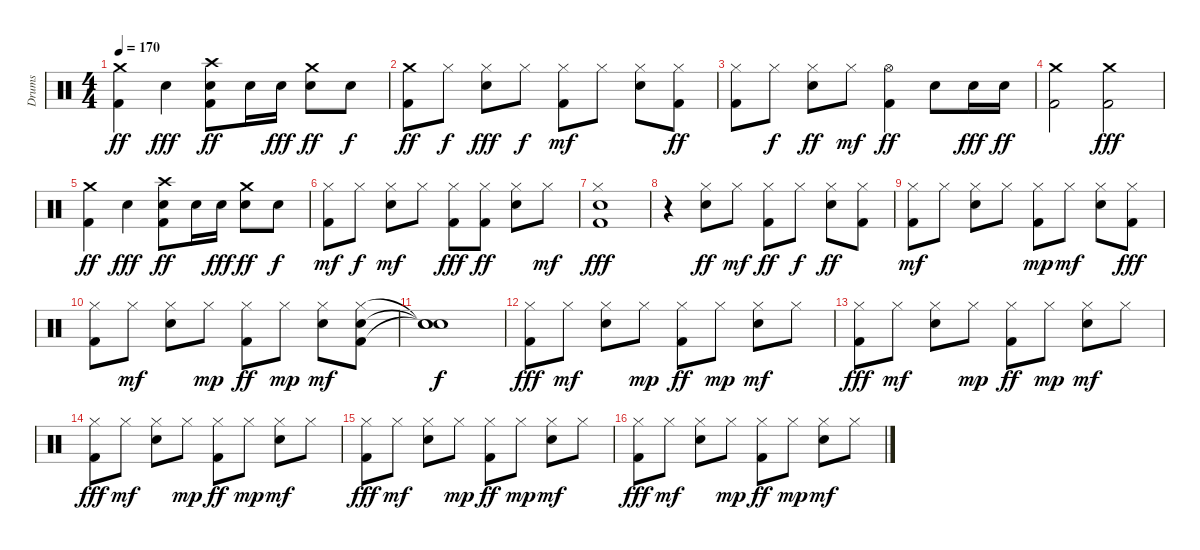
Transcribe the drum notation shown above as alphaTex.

\track ("Drums" "Drums") {instrument percussion}
\staff {score}
\articulation defaults
\ts (4 4)
\tempo 170
\clef neutral
\ks c
("Crash medium (hit)" "Kick (hit) 2").4{dy ff} "Snare (hit) 2".4{dy fff} ("Snare (hit) 2" "Kick (hit) 2" "Crash high (hit)").8{dy ff} "Snare (hit) 2".16 "Snare (hit) 2".16{dy fff} ("Snare (hit) 2" "Crash medium (hit)").8{dy ff} "Snare (hit) 2".8{dy f} |
("Crash medium (hit)" "Kick (hit) 2").8{dy ff} "Hi-Hat (closed)".8{dy f} ("Hi-Hat (closed)" "Snare (hit) 2").8{dy fff} "Hi-Hat (closed)".8{dy f} ("Kick (hit) 2" "Hi-Hat (closed)").8{dy mf} "Hi-Hat (closed)".8 ("Snare (hit) 2" "Hi-Hat (closed)").8 ("Hi-Hat (closed)" "Kick (hit) 2").8{dy ff} |
("Hi-Hat (closed)" "Kick (hit) 2").8 "Hi-Hat (closed)".8{dy f} ("Hi-Hat (closed)" "Snare (hit) 2").8{dy ff} "Hi-Hat (closed)".8{dy mf} ("Kick (hit) 2" "Hi-Hat (open)").4{dy ff} "Snare (hit) 2".8 "Snare (hit) 2".16{dy fff} "Snare (hit) 2".16{dy ff} |
("Kick (hit) 2" "Crash medium (hit)").2 ("Kick (hit) 2" "Crash medium (hit)").2{dy fff} |
("Crash medium (hit)" "Kick (hit) 2").4{dy ff} "Snare (hit) 2".4{dy fff} ("Snare (hit) 2" "Kick (hit) 2" "Crash high (hit)").8{dy ff} "Snare (hit) 2".16 "Snare (hit) 2".16{dy fff} ("Snare (hit) 2" "Crash medium (hit)").8{dy ff} "Snare (hit) 2".8{dy f} |
("Kick (hit) 2" "Hi-Hat (closed)").8{dy mf} "Hi-Hat (closed)".8{dy f} ("Snare (hit) 2" "Hi-Hat (closed)").8{dy mf} "Hi-Hat (closed)".8 ("Hi-Hat (closed)" "Kick (hit) 2").8{dy fff} ("Hi-Hat (closed)" "Kick (hit) 2").8{dy ff} ("Hi-Hat (closed)" "Snare (hit) 2").8 "Hi-Hat (closed)".8{dy mf} |
("Kick (hit) 2" "Hi-Hat (closed)" "Snare (hit) 2").1{dy fff} |
r.4 ("Hi-Hat (closed)" "Snare (hit) 2").8{dy ff} "Hi-Hat (closed)".8{dy mf} ("Hi-Hat (closed)" "Kick (hit) 2").8{dy ff} "Hi-Hat (closed)".8{dy f} ("Hi-Hat (closed)" "Snare (hit) 2").8{dy ff} ("Hi-Hat (closed)" "Kick (hit) 2").8 |
("Hi-Hat (closed)" "Kick (hit) 2").8{dy mf} "Hi-Hat (closed)".8 ("Hi-Hat (closed)" "Snare (hit) 2").8 "Hi-Hat (closed)".8 ("Hi-Hat (closed)" "Kick (hit) 2").8{dy mp} "Hi-Hat (closed)".8{dy mf} ("Hi-Hat (closed)" "Snare (hit) 2").8 ("Hi-Hat (closed)" "Kick (hit) 2").8{dy fff} |
("Hi-Hat (closed)" "Kick (hit) 2").8 "Hi-Hat (closed)".8{dy mf} ("Hi-Hat (closed)" "Snare (hit) 2").8 "Hi-Hat (closed)".8{dy mp} ("Hi-Hat (closed)" "Kick (hit) 2").8{dy ff} "Hi-Hat (closed)".8{dy mp} ("Hi-Hat (closed)" "Snare (hit) 2").8{dy mf} ("Hi-Hat (closed)" "Kick (hit) 2" "Snare (hit) 2").8 |
("Snare (hit)"{t} "Snare (hit)"{t} "Snare (hit)"{t}).1{dy f} |
("Hi-Hat (closed)" "Kick (hit) 2").8{dy fff} "Hi-Hat (closed)".8{dy mf} ("Hi-Hat (closed)" "Snare (hit) 2").8 "Hi-Hat (closed)".8{dy mp} ("Hi-Hat (closed)" "Kick (hit) 2").8{dy ff} "Hi-Hat (closed)".8{dy mp} ("Hi-Hat (closed)" "Snare (hit) 2").8{dy mf} "Hi-Hat (closed)".8 |
("Hi-Hat (closed)" "Kick (hit) 2").8{dy fff} "Hi-Hat (closed)".8{dy mf} ("Hi-Hat (closed)" "Snare (hit) 2").8 "Hi-Hat (closed)".8{dy mp} ("Hi-Hat (closed)" "Kick (hit) 2").8{dy ff} "Hi-Hat (closed)".8{dy mp} ("Hi-Hat (closed)" "Snare (hit) 2").8{dy mf} "Hi-Hat (closed)".8 |
("Hi-Hat (closed)" "Kick (hit) 2").8{dy fff} "Hi-Hat (closed)".8{dy mf} ("Hi-Hat (closed)" "Snare (hit) 2").8 "Hi-Hat (closed)".8{dy mp} ("Hi-Hat (closed)" "Kick (hit) 2").8{dy ff} "Hi-Hat (closed)".8{dy mp} ("Hi-Hat (closed)" "Snare (hit) 2").8{dy mf} "Hi-Hat (closed)".8 |
("Hi-Hat (closed)" "Kick (hit) 2").8{dy fff} "Hi-Hat (closed)".8{dy mf} ("Hi-Hat (closed)" "Snare (hit) 2").8 "Hi-Hat (closed)".8{dy mp} ("Hi-Hat (closed)" "Kick (hit) 2").8{dy ff} "Hi-Hat (closed)".8{dy mp} ("Hi-Hat (closed)" "Snare (hit) 2").8{dy mf} "Hi-Hat (closed)".8 |
("Hi-Hat (closed)" "Kick (hit) 2").8{dy fff} "Hi-Hat (closed)".8{dy mf} ("Hi-Hat (closed)" "Snare (hit) 2").8 "Hi-Hat (closed)".8{dy mp} ("Hi-Hat (closed)" "Kick (hit) 2").8{dy ff} "Hi-Hat (closed)".8{dy mp} ("Hi-Hat (closed)" "Snare (hit) 2").8{dy mf} "Hi-Hat (closed)".8
